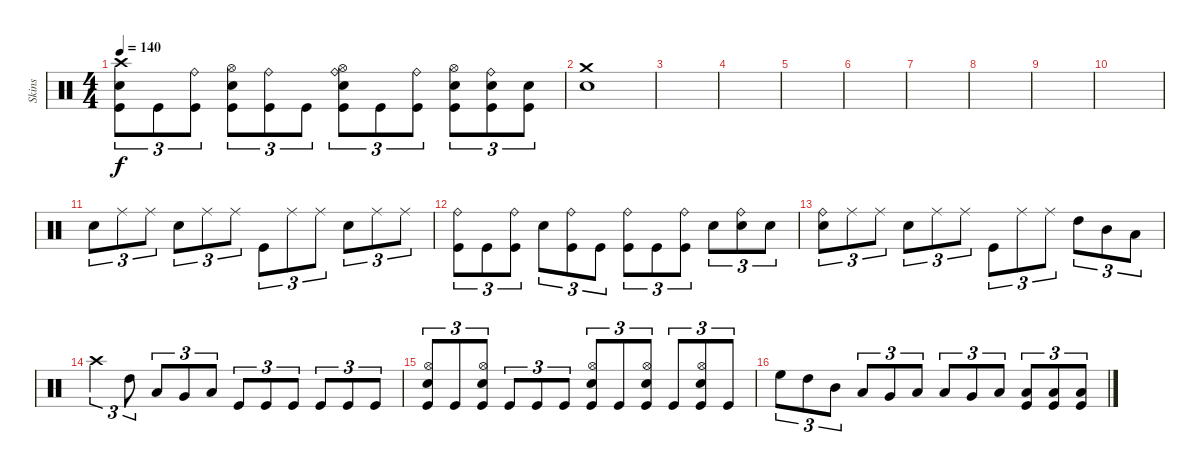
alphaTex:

\track ("Skins" "Skins") {instrument percussion}
\staff {score}
\articulation defaults
\ts (4 4)
\tempo 140
\clef neutral
\ks c
("Crash high (hit)" "Snare (hit) 2" "Kick (hit)").8{tu (3 2) dy f} "Kick (hit)".8{tu (3 2)} ("Ride (bell)" "Kick (hit)").8{tu (3 2)} ("Hi-Hat (open)" "Snare (hit) 2" "Kick (hit)").8{tu (3 2)} ("Ride (bell)" "Kick (hit)").8{tu (3 2)} "Kick (hit)".8{tu (3 2)} ("Ride (bell)" "Hi-Hat (open)" "Snare (hit) 2" "Kick (hit)").8{tu (3 2)} "Kick (hit)".8{tu (3 2)} ("Ride (bell)" "Kick (hit)").8{tu (3 2)} ("Hi-Hat (open)" "Snare (hit) 2" "Kick (hit)").8{tu (3 2)} ("Ride (bell)" "Snare (hit) 2" "Kick (hit)").8{tu (3 2)} ("Snare (hit) 2" "Kick (hit)").8{tu (3 2)} |
("Crash medium (hit)" "Electric Snare (hit)").1 |
|
|
|
|
|
|
|
|
"Electric Snare (hit)".8{tu (3 2)} "Ride (middle)".8{tu (3 2)} "Ride (middle)".8{tu (3 2)} "Electric Snare (hit)".8{tu (3 2)} "Ride (middle)".8{tu (3 2)} "Ride (middle)".8{tu (3 2)} "Kick (hit)".8{tu (3 2)} "Ride (middle)".8{tu (3 2)} "Ride (middle)".8{tu (3 2)} "Electric Snare (hit)".8{tu (3 2)} "Ride (middle)".8{tu (3 2)} "Ride (middle)".8{tu (3 2)} |
("Ride (bell)" "Kick (hit)").8{tu (3 2)} "Kick (hit)".8{tu (3 2)} ("Ride (bell)" "Kick (hit)").8{tu (3 2)} "Electric Snare (hit)".8{tu (3 2)} ("Ride (bell)" "Kick (hit)").8{tu (3 2)} "Kick (hit)".8{tu (3 2)} ("Ride (bell)" "Kick (hit)").8{tu (3 2)} "Kick (hit)".8{tu (3 2)} ("Ride (bell)" "Kick (hit)").8{tu (3 2)} "Snare (hit) 2".8{tu (3 2)} ("Ride (bell)" "Snare (hit) 2").8{tu (3 2)} "Snare (hit) 2".8{tu (3 2)} |
("Ride (bell)" "Electric Snare (hit)").8{tu (3 2)} "Ride (middle)".8{tu (3 2)} "Ride (middle)".8{tu (3 2)} "Electric Snare (hit)".8{tu (3 2)} "Ride (middle)".8{tu (3 2)} "Ride (middle)".8{tu (3 2)} "Kick (hit)".8{tu (3 2)} "Ride (middle)".8{tu (3 2)} "Ride (middle)".8{tu (3 2)} "High Tom (hit)".8{tu (3 2)} "Mid Tom (hit)".8{tu (3 2)} "Low Tom (hit)".8{tu (3 2)} |
"Crash high (hit)".4{tu (3 2)} "High Tom (hit)".8{tu (3 2)} "Low Tom (hit)".8{tu (3 2)} "Very Low Tom (hit)".8{tu (3 2)} "Low Floor Tom (hit)".8{tu (3 2)} "Kick (hit)".8{tu (3 2)} "Kick (hit)".8{tu (3 2)} "Kick (hit)".8{tu (3 2)} "Kick (hit)".8{tu (3 2)} "Kick (hit)".8{tu (3 2)} "Kick (hit)".8{tu (3 2)} |
("Hi-Hat (open)" "Electric Snare (hit)" "Kick (hit)").8{tu (3 2)} "Kick (hit)".8{tu (3 2)} ("Hi-Hat (open)" "Electric Snare (hit)" "Kick (hit)").8{tu (3 2)} "Kick (hit)".8{tu (3 2)} "Kick (hit)".8{tu (3 2)} "Kick (hit)".8{tu (3 2)} ("Hi-Hat (open)" "Electric Snare (hit)" "Kick (hit)").8{tu (3 2)} "Kick (hit)".8{tu (3 2)} ("Hi-Hat (open)" "Electric Snare (hit)" "Kick (hit)").8{tu (3 2)} "Kick (hit)".8{tu (3 2)} ("Hi-Hat (open)" "Electric Snare (hit)" "Kick (hit)").8{tu (3 2)} "Kick (hit)".8{tu (3 2)} |
"High Floor Tom (hit)".8{tu (3 2)} "High Tom (hit)".8{tu (3 2)} "Mid Tom (hit)".8{tu (3 2)} "Low Tom (hit)".8{tu (3 2)} "Very Low Tom (hit)".8{tu (3 2)} "Low Floor Tom (hit)".8{tu (3 2)} "Low Tom (hit)".8{tu (3 2)} "Very Low Tom (hit)".8{tu (3 2)} "Low Floor Tom (hit)".8{tu (3 2)} ("Low Floor Tom (hit)" "Kick (hit)").8{tu (3 2)} ("Low Floor Tom (hit)" "Kick (hit)").8{tu (3 2)} ("Low Floor Tom (hit)" "Kick (hit)").8{tu (3 2)}
